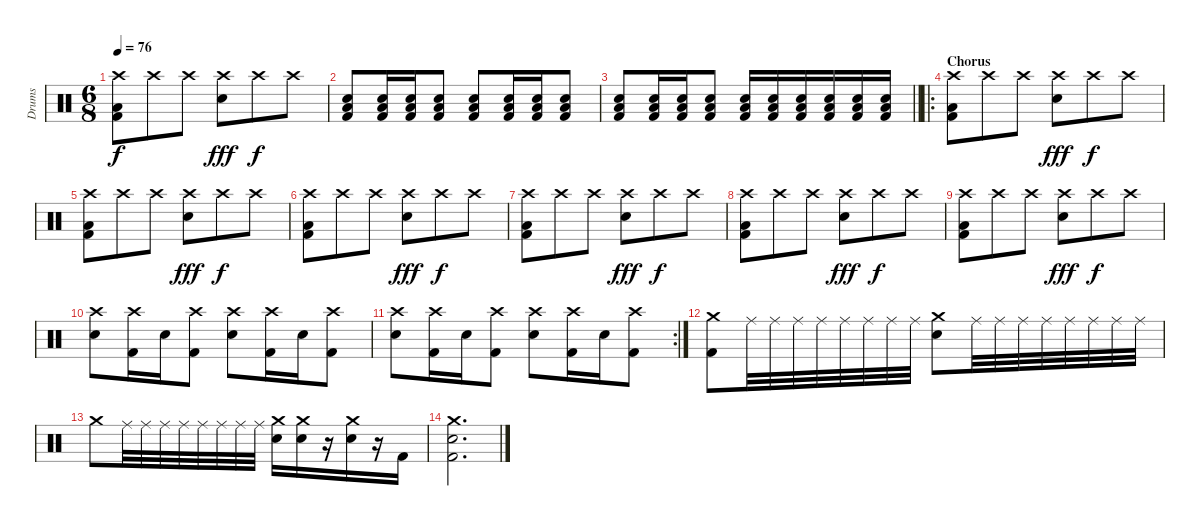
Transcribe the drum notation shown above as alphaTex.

\track ("Drums" "Drums") {instrument percussion}
\staff {score}
\articulation defaults
\ts (6 8)
\tempo 76
\clef neutral
\ks c
("Crash high (hit)" "Low Floor Tom (hit)" "Kick (hit) 2").8{dy f} "Crash high (hit)".8 "Crash high (hit)".8 ("Crash high (hit)" "Snare (hit) 2").8{dy fff} "Crash high (hit)".8{dy f} "Crash high (hit)".8 |
("Low Tom (hit)" "Snare (hit) 2" "Kick (hit) 2").8 ("Low Tom (hit)" "Snare (hit) 2" "Kick (hit) 2").16 ("Low Tom (hit)" "Snare (hit) 2" "Kick (hit) 2").16 ("Low Tom (hit)" "Snare (hit) 2" "Kick (hit) 2").8 ("Low Tom (hit)" "Snare (hit) 2" "Kick (hit) 2").8 ("Low Tom (hit)" "Snare (hit) 2" "Kick (hit) 2").16 ("Low Tom (hit)" "Snare (hit) 2" "Kick (hit) 2").16 ("Low Tom (hit)" "Snare (hit) 2" "Kick (hit) 2").8 |
\barLineRight lightlight
("Low Tom (hit)" "Snare (hit) 2" "Kick (hit) 2").8 ("Low Tom (hit)" "Snare (hit) 2" "Kick (hit) 2").16 ("Low Tom (hit)" "Snare (hit) 2" "Kick (hit) 2").16 ("Low Tom (hit)" "Snare (hit) 2" "Kick (hit) 2").8 ("Low Tom (hit)" "Snare (hit) 2" "Kick (hit) 2").16 ("Low Tom (hit)" "Snare (hit) 2" "Kick (hit) 2").16 ("Low Tom (hit)" "Snare (hit) 2" "Kick (hit) 2").16 ("Low Tom (hit)" "Snare (hit) 2" "Kick (hit) 2").16 ("Low Tom (hit)" "Snare (hit) 2" "Kick (hit) 2").16 ("Low Tom (hit)" "Snare (hit) 2" "Kick (hit) 2").16 |
\ro
\section ("" "Chorus")
("Crash high (hit)" "Low Floor Tom (hit)" "Kick (hit) 2").8 "Crash high (hit)".8 "Crash high (hit)".8 ("Crash high (hit)" "Snare (hit) 2").8{dy fff} "Crash high (hit)".8{dy f} "Crash high (hit)".8 |
("Crash high (hit)" "Low Floor Tom (hit)" "Kick (hit) 2").8 "Crash high (hit)".8 "Crash high (hit)".8 ("Crash high (hit)" "Snare (hit) 2").8{dy fff} "Crash high (hit)".8{dy f} "Crash high (hit)".8 |
("Crash high (hit)" "Low Floor Tom (hit)" "Kick (hit) 2").8 "Crash high (hit)".8 "Crash high (hit)".8 ("Crash high (hit)" "Snare (hit) 2").8{dy fff} "Crash high (hit)".8{dy f} "Crash high (hit)".8 |
("Crash high (hit)" "Low Floor Tom (hit)" "Kick (hit) 2").8 "Crash high (hit)".8 "Crash high (hit)".8 ("Crash high (hit)" "Snare (hit) 2").8{dy fff} "Crash high (hit)".8{dy f} "Crash high (hit)".8 |
("Crash high (hit)" "Low Floor Tom (hit)" "Kick (hit) 2").8 "Crash high (hit)".8 "Crash high (hit)".8 ("Crash high (hit)" "Snare (hit) 2").8{dy fff} "Crash high (hit)".8{dy f} "Crash high (hit)".8 |
("Crash high (hit)" "Low Floor Tom (hit)" "Kick (hit) 2").8 "Crash high (hit)".8 "Crash high (hit)".8 ("Crash high (hit)" "Snare (hit) 2").8{dy fff} "Crash high (hit)".8{dy f} "Crash high (hit)".8 |
("Crash high (hit)" "Snare (hit) 2").8 ("Crash high (hit)" "Kick (hit) 2").16 "Snare (hit) 2".16 ("Crash high (hit)" "Kick (hit) 2").8 ("Crash high (hit)" "Snare (hit) 2").8 ("Crash high (hit)" "Kick (hit) 2").16 "Snare (hit) 2".16 ("Crash high (hit)" "Kick (hit) 2").8 |
\rc 2
("Crash high (hit)" "Snare (hit) 2").8 ("Crash high (hit)" "Kick (hit) 2").16 "Snare (hit) 2".16 ("Crash high (hit)" "Kick (hit) 2").8 ("Crash high (hit)" "Snare (hit) 2").8 ("Crash high (hit)" "Kick (hit) 2").16 "Snare (hit) 2".16 ("Crash high (hit)" "Kick (hit) 2").8 |
("Crash medium (hit)" "Kick (hit) 2").8 "Ride (middle)".32 "Ride (middle)".32 "Ride (middle)".32 "Ride (middle)".32 "Ride (middle)".32 "Ride (middle)".32 "Ride (middle)".32 "Ride (middle)".32 ("Crash medium (hit)" "Snare (hit) 2").8 "Ride (middle)".32 "Ride (middle)".32 "Ride (middle)".32 "Ride (middle)".32 "Ride (middle)".32 "Ride (middle)".32 "Ride (middle)".32 "Ride (middle)".32 |
"Crash medium (hit)".8 "Ride (middle)".32 "Ride (middle)".32 "Ride (middle)".32 "Ride (middle)".32 "Ride (middle)".32 "Ride (middle)".32 "Ride (middle)".32 "Ride (middle)".32 ("Crash medium (hit)" "Snare (hit) 2").16 ("Crash medium (hit)" "Snare (hit) 2").16 r.16 ("Crash medium (hit)" "Snare (hit) 2").16 r.16 "Kick (hit) 2".16 |
("Crash medium (hit)" "Snare (hit) 2" "Kick (hit) 2").2{d}
